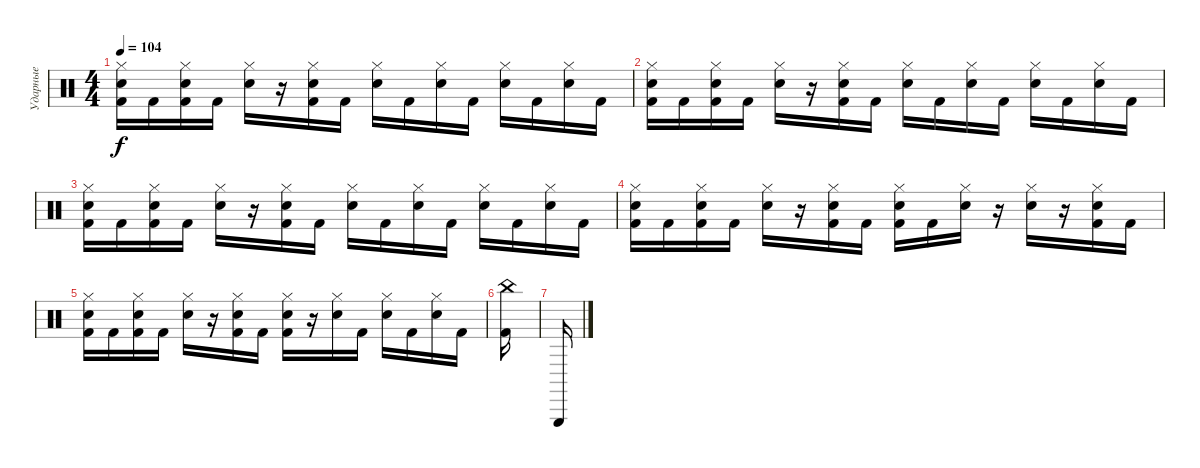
\track ("Ударные" "Ударные") {instrument percussion}
\staff {score}
\articulation defaults
\ts (4 4)
\tempo 104
\clef neutral
\ks c
("Hi-Hat (closed)" "Snare (hit) 2" "Kick (hit) 2").16{dy f} "Kick (hit) 2".16 ("Hi-Hat (closed)" "Snare (hit) 2" "Kick (hit) 2").16 "Kick (hit) 2".16 ("Hi-Hat (closed)" "Snare (hit) 2").16 r.16 ("Hi-Hat (closed)" "Snare (hit) 2" "Kick (hit) 2").16 "Kick (hit) 2".16 ("Hi-Hat (closed)" "Snare (hit) 2").16 "Kick (hit) 2".16 ("Hi-Hat (closed)" "Snare (hit) 2").16 "Kick (hit) 2".16 ("Hi-Hat (closed)" "Snare (hit) 2").16 "Kick (hit) 2".16 ("Hi-Hat (closed)" "Snare (hit) 2").16 "Kick (hit) 2".16 |
("Hi-Hat (closed)" "Snare (hit) 2" "Kick (hit) 2").16 "Kick (hit) 2".16 ("Hi-Hat (closed)" "Snare (hit) 2" "Kick (hit) 2").16 "Kick (hit) 2".16 ("Hi-Hat (closed)" "Snare (hit) 2").16 r.16 ("Hi-Hat (closed)" "Snare (hit) 2" "Kick (hit) 2").16 "Kick (hit) 2".16 ("Hi-Hat (closed)" "Snare (hit) 2").16 "Kick (hit) 2".16 ("Hi-Hat (closed)" "Snare (hit) 2").16 "Kick (hit) 2".16 ("Hi-Hat (closed)" "Snare (hit) 2").16 "Kick (hit) 2".16 ("Hi-Hat (closed)" "Snare (hit) 2").16 "Kick (hit) 2".16 |
("Hi-Hat (closed)" "Snare (hit) 2" "Kick (hit) 2").16 "Kick (hit) 2".16 ("Hi-Hat (closed)" "Snare (hit) 2" "Kick (hit) 2").16 "Kick (hit) 2".16 ("Hi-Hat (closed)" "Snare (hit) 2").16 r.16 ("Hi-Hat (closed)" "Snare (hit) 2" "Kick (hit) 2").16 "Kick (hit) 2".16 ("Hi-Hat (closed)" "Snare (hit) 2").16 "Kick (hit) 2".16 ("Hi-Hat (closed)" "Snare (hit) 2").16 "Kick (hit) 2".16 ("Hi-Hat (closed)" "Snare (hit) 2").16 "Kick (hit) 2".16 ("Hi-Hat (closed)" "Snare (hit) 2").16 "Kick (hit) 2".16 |
("Hi-Hat (closed)" "Snare (hit) 2" "Kick (hit) 2").16 "Kick (hit) 2".16 ("Hi-Hat (closed)" "Snare (hit) 2" "Kick (hit) 2").16 "Kick (hit) 2".16 ("Hi-Hat (closed)" "Snare (hit) 2").16 r.16 ("Hi-Hat (closed)" "Snare (hit) 2" "Kick (hit) 2").16 "Kick (hit) 2".16 ("Hi-Hat (closed)" "Snare (hit) 2" "Kick (hit) 2").16 "Kick (hit) 2".16 ("Hi-Hat (closed)" "Snare (hit) 2").16 r.16 ("Hi-Hat (closed)" "Snare (hit) 2").16 r.16 ("Hi-Hat (closed)" "Snare (hit) 2" "Kick (hit) 2").16 "Kick (hit) 2".16 |
("Hi-Hat (closed)" "Snare (hit) 2" "Kick (hit) 2").16 "Kick (hit) 2".16 ("Hi-Hat (closed)" "Snare (hit) 2" "Kick (hit) 2").16 "Kick (hit) 2".16 ("Hi-Hat (closed)" "Snare (hit) 2").16 r.16 ("Hi-Hat (closed)" "Snare (hit) 2" "Kick (hit) 2").16 "Kick (hit) 2".16 ("Hi-Hat (closed)" "Snare (hit) 2" "Kick (hit) 2").16 r.16 ("Hi-Hat (closed)" "Snare (hit) 2").16 "Kick (hit) 2".16 ("Hi-Hat (closed)" "Snare (hit) 2").16 "Kick (hit) 2".16 ("Hi-Hat (closed)" "Snare (hit) 2").16 "Kick (hit) 2".16 |
("China (hit)" "Kick (hit) 2").16 |
"Triangle (hit)".16
